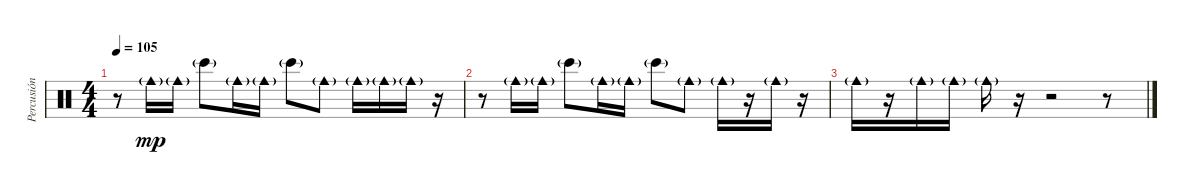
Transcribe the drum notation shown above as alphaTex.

\track ("Percusión" "Percusión") {instrument percussion}
\staff {score}
\articulation defaults
\ts (4 4)
\tempo 105
\clef neutral
\ks c
r.8{dy mp} "Cowbell medium (hit)"{g}.16 "Cowbell medium (hit)"{g}.16 "Bongo High (hit)"{g}.8 "Cowbell medium (hit)"{g}.16 "Cowbell medium (hit)"{g}.16 "Bongo High (hit)"{g}.8 "Cowbell medium (hit)"{g}.8 "Cowbell medium (hit)"{g}.16 "Cowbell medium (hit)"{g}.16 "Cowbell medium (hit)"{g}.16 r.16 |
r.8 "Cowbell medium (hit)"{g}.16 "Cowbell medium (hit)"{g}.16 "Bongo High (hit)"{g}.8 "Cowbell medium (hit)"{g}.16 "Cowbell medium (hit)"{g}.16 "Bongo High (hit)"{g}.8 "Cowbell medium (hit)"{g}.8 "Cowbell medium (hit)"{g}.16 r.16 "Cowbell medium (hit)"{g}.16 r.16 |
"Cowbell medium (hit)"{g}.16 r.16 "Cowbell medium (hit)"{g}.16 "Cowbell medium (hit)"{g}.16 "Cowbell medium (hit)"{g}.16 r.16 r.2 r.8
